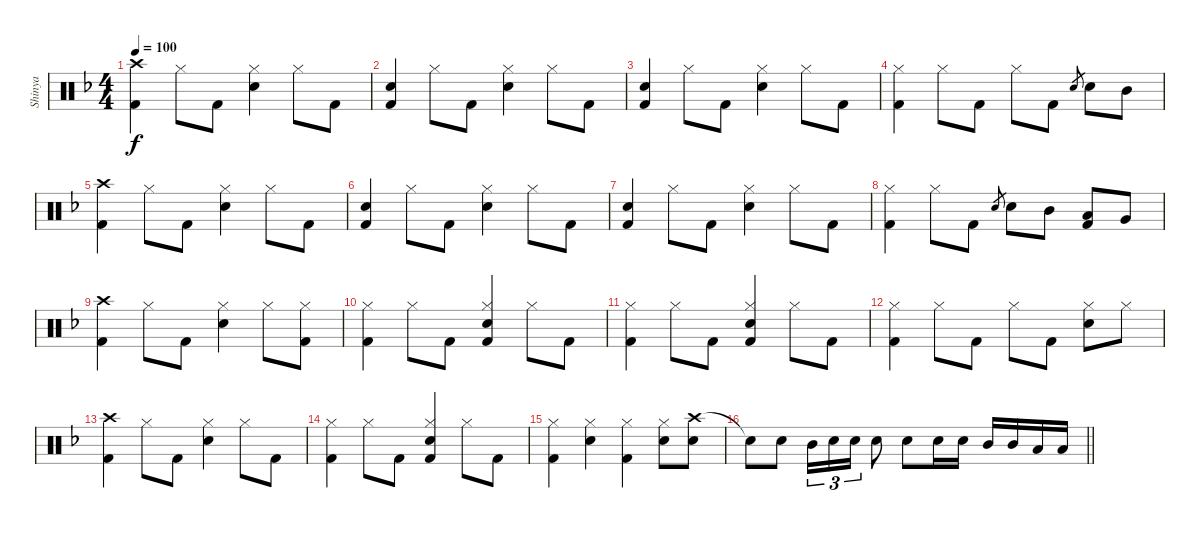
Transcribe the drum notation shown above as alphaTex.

\track ("Shinya" "Shinya") {instrument percussion}
\staff {score}
\articulation defaults
\ts (4 4)
\tempo 100
\clef neutral
\ks f
("Crash high (hit)" "Kick (hit) 2").4{dy f} "Hi-Hat (closed)".8 "Kick (hit) 2".8 ("Hi-Hat (closed)" "Electric Snare (hit)").4 "Hi-Hat (closed)".8 "Kick (hit) 2".8 |
("Snare (hit)" "Kick (hit) 2").4 "Hi-Hat (closed)".8 "Kick (hit) 2".8 ("Hi-Hat (closed)" "Electric Snare (hit)").4 "Hi-Hat (closed)".8 "Kick (hit) 2".8 |
("Snare (hit)" "Kick (hit) 2").4 "Hi-Hat (closed)".8 "Kick (hit) 2".8 ("Hi-Hat (closed)" "Electric Snare (hit)").4 "Hi-Hat (closed)".8 "Kick (hit) 2".8 |
("Hi-Hat (closed)" "Kick (hit) 2").4 "Hi-Hat (closed)".8 "Kick (hit) 2".8 "Hi-Hat (closed)".8 "Kick (hit) 2".8 "Electric Snare (hit)".8{gr} "Electric Snare (hit)".8 "Mid Tom (hit)".8 |
("Crash high (hit)" "Kick (hit) 2").4 "Hi-Hat (closed)".8 "Kick (hit) 2".8 ("Hi-Hat (closed)" "Electric Snare (hit)").4 "Hi-Hat (closed)".8 "Kick (hit) 2".8 |
("Snare (hit)" "Kick (hit) 2").4 "Hi-Hat (closed)".8 "Kick (hit) 2".8 ("Hi-Hat (closed)" "Electric Snare (hit)").4 "Hi-Hat (closed)".8 "Kick (hit) 2".8 |
("Snare (hit)" "Kick (hit) 2").4 "Hi-Hat (closed)".8 "Kick (hit) 2".8 ("Hi-Hat (closed)" "Electric Snare (hit)").4 "Hi-Hat (closed)".8 "Kick (hit) 2".8 |
("Hi-Hat (closed)" "Kick (hit) 2").4 "Hi-Hat (closed)".8 "Kick (hit) 2".8 "Electric Snare (hit)".8{gr} "Electric Snare (hit)".8 "Mid Tom (hit)".8 ("Low Tom (hit)" "Kick (hit) 2").8 "Very Low Tom (hit)".8 |
("Crash high (hit)" "Kick (hit) 2").4 "Hi-Hat (closed)".8 "Kick (hit) 2".8 ("Hi-Hat (closed)" "Electric Snare (hit)").4 "Hi-Hat (closed)".8 ("Hi-Hat (closed)" "Kick (hit) 2").8 |
("Hi-Hat (closed)" "Kick (hit) 2").4 "Hi-Hat (closed)".8 "Kick (hit) 2".8 ("Hi-Hat (closed)" "Electric Snare (hit)" "Kick (hit) 2").4 "Hi-Hat (closed)".8 "Kick (hit) 2".8 |
("Hi-Hat (closed)" "Kick (hit) 2").4 "Hi-Hat (closed)".8 "Kick (hit) 2".8 ("Hi-Hat (closed)" "Electric Snare (hit)" "Kick (hit) 2").4 "Hi-Hat (closed)".8 "Kick (hit) 2".8 |
("Hi-Hat (closed)" "Kick (hit) 2").4 "Hi-Hat (closed)".8 "Kick (hit) 2".8 "Hi-Hat (closed)".8 "Kick (hit) 2".8 ("Hi-Hat (closed)" "Electric Snare (hit)").8 "Hi-Hat (closed)".8 |
("Crash high (hit)" "Kick (hit) 2").4 "Hi-Hat (closed)".8 "Kick (hit) 2".8 ("Hi-Hat (closed)" "Electric Snare (hit)").4 "Hi-Hat (closed)".8 "Kick (hit) 2".8 |
("Hi-Hat (closed)" "Kick (hit) 2").4 "Hi-Hat (closed)".8 "Kick (hit) 2".8 ("Hi-Hat (closed)" "Electric Snare (hit)" "Kick (hit) 2").4 "Hi-Hat (closed)".8 "Kick (hit) 2".8 |
("Hi-Hat (closed)" "Kick (hit) 2").4 ("Hi-Hat (closed)" "Electric Snare (hit)").4 ("Hi-Hat (closed)" "Kick (hit) 2").4 ("Hi-Hat (closed)" "Electric Snare (hit)").8 ("Crash high (hit)" "Electric Snare (hit)").8 |
\barLineRight lightlight "Snare (hit)"{t}.8 "Electric Snare (hit)".8 "Mid Tom (hit)".16{tu (3 2)} "Electric Snare (hit)".16{tu (3 2)} "Electric Snare (hit)".16{tu (3 2)} "Electric Snare (hit)".8 "Electric Snare (hit)".8 "Electric Snare (hit)".16 "Electric Snare (hit)".16 "Mid Tom (hit)".16 "Mid Tom (hit)".16 "Low Tom (hit)".16 "Low Tom (hit)".16
